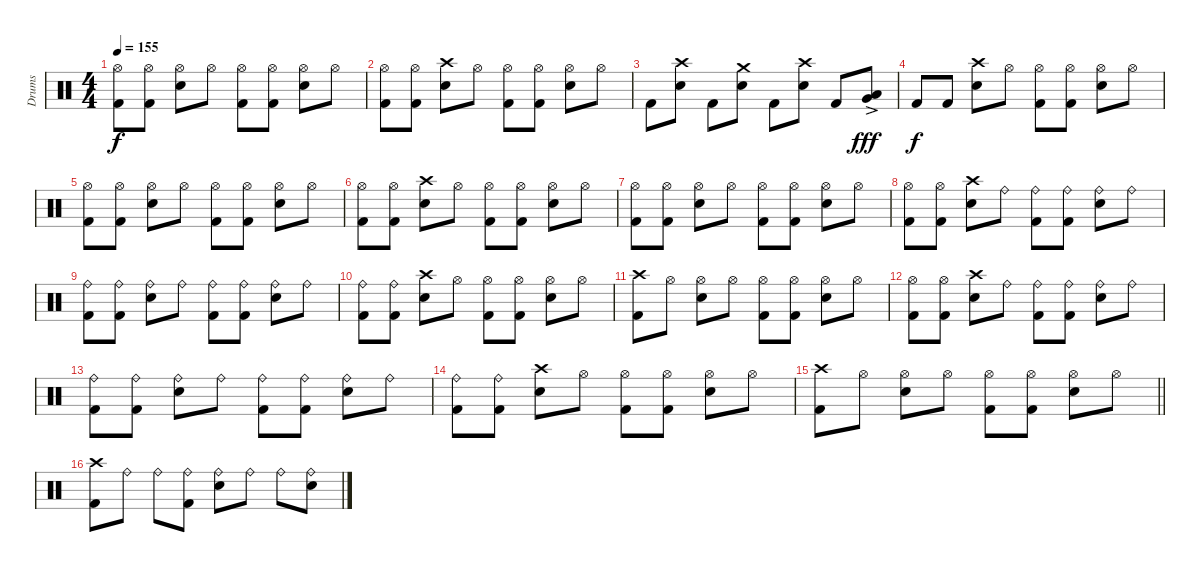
\track ("Drums" "Drums") {instrument percussion}
\staff {score}
\articulation defaults
\ts (4 4)
\tempo 155
\clef neutral
\ks c
("Hi-Hat (open)" "Kick (hit) 2").8{dy f} ("Hi-Hat (open)" "Kick (hit) 2").8 ("Hi-Hat (open)" "Snare (hit) 2").8 "Hi-Hat (open)".8 ("Hi-Hat (open)" "Kick (hit) 2").8 ("Hi-Hat (open)" "Kick (hit) 2").8 ("Hi-Hat (open)" "Snare (hit) 2").8 "Hi-Hat (open)".8 |
("Hi-Hat (open)" "Kick (hit) 2").8 ("Hi-Hat (open)" "Kick (hit) 2").8 ("Crash high (hit)" "Snare (hit) 2").8 "Hi-Hat (open)".8 ("Hi-Hat (open)" "Kick (hit) 2").8 ("Hi-Hat (open)" "Kick (hit) 2").8 ("Hi-Hat (open)" "Snare (hit) 2").8 "Hi-Hat (open)".8 |
"Kick (hit) 2".8 ("Crash high (hit)" "Snare (hit) 2").8 "Kick (hit) 2".8 ("Crash medium (hit)" "Snare (hit) 2").8 "Kick (hit) 2".8 ("Crash high (hit)" "Snare (hit) 2").8 "Kick (hit) 2".8 ("Low Tom (hit)"{ac} "Very Low Tom (hit)").8{dy fff} |
"Kick (hit) 2".8{dy f} "Kick (hit) 2".8 ("Crash high (hit)" "Snare (hit) 2").8 "Hi-Hat (open)".8 ("Hi-Hat (open)" "Kick (hit) 2").8 ("Hi-Hat (open)" "Kick (hit) 2").8 ("Hi-Hat (open)" "Snare (hit) 2").8 "Hi-Hat (open)".8 |
("Hi-Hat (open)" "Kick (hit) 2").8 ("Hi-Hat (open)" "Kick (hit) 2").8 ("Hi-Hat (open)" "Snare (hit) 2").8 "Hi-Hat (open)".8 ("Hi-Hat (open)" "Kick (hit) 2").8 ("Hi-Hat (open)" "Kick (hit) 2").8 ("Hi-Hat (open)" "Snare (hit) 2").8 "Hi-Hat (open)".8 |
("Hi-Hat (open)" "Kick (hit) 2").8 ("Hi-Hat (open)" "Kick (hit) 2").8 ("Crash high (hit)" "Snare (hit) 2").8 "Hi-Hat (open)".8 ("Hi-Hat (open)" "Kick (hit) 2").8 ("Hi-Hat (open)" "Kick (hit) 2").8 ("Hi-Hat (open)" "Snare (hit) 2").8 "Hi-Hat (open)".8 |
("Hi-Hat (open)" "Kick (hit) 2").8 ("Hi-Hat (open)" "Kick (hit) 2").8 ("Hi-Hat (open)" "Snare (hit) 2").8 "Hi-Hat (open)".8 ("Hi-Hat (open)" "Kick (hit) 2").8 ("Hi-Hat (open)" "Kick (hit) 2").8 ("Hi-Hat (open)" "Snare (hit) 2").8 "Hi-Hat (open)".8 |
("Hi-Hat (open)" "Kick (hit) 2").8 ("Hi-Hat (open)" "Kick (hit) 2").8 ("Crash high (hit)" "Snare (hit) 2").8 "Ride (bell)".8 ("Ride (bell)" "Kick (hit) 2").8 ("Ride (bell)" "Kick (hit) 2").8 ("Ride (bell)" "Snare (hit) 2").8 "Ride (bell)".8 |
("Ride (bell)" "Kick (hit) 2").8 ("Ride (bell)" "Kick (hit) 2").8 ("Ride (bell)" "Snare (hit) 2").8 "Ride (bell)".8 ("Ride (bell)" "Kick (hit) 2").8 ("Ride (bell)" "Kick (hit) 2").8 ("Ride (bell)" "Snare (hit) 2").8 "Ride (bell)".8 |
("Ride (bell)" "Kick (hit) 2").8 ("Ride (bell)" "Kick (hit) 2").8 ("Crash high (hit)" "Snare (hit) 2").8 "Hi-Hat (open)".8 ("Hi-Hat (open)" "Kick (hit) 2").8 ("Hi-Hat (open)" "Kick (hit) 2").8 ("Hi-Hat (open)" "Snare (hit) 2").8 "Hi-Hat (open)".8 |
("Crash high (hit)" "Kick (hit) 2").8 "Hi-Hat (open)".8 ("Hi-Hat (open)" "Snare (hit) 2").8 "Hi-Hat (open)".8 ("Hi-Hat (open)" "Kick (hit) 2").8 ("Hi-Hat (open)" "Kick (hit) 2").8 ("Hi-Hat (open)" "Snare (hit) 2").8 "Hi-Hat (open)".8 |
("Hi-Hat (open)" "Kick (hit) 2").8 ("Hi-Hat (open)" "Kick (hit) 2").8 ("Crash high (hit)" "Snare (hit) 2").8 "Ride (bell)".8 ("Ride (bell)" "Kick (hit) 2").8 ("Ride (bell)" "Kick (hit) 2").8 ("Ride (bell)" "Snare (hit) 2").8 "Ride (bell)".8 |
("Ride (bell)" "Kick (hit) 2").8 ("Ride (bell)" "Kick (hit) 2").8 ("Ride (bell)" "Snare (hit) 2").8 "Ride (bell)".8 ("Ride (bell)" "Kick (hit) 2").8 ("Ride (bell)" "Kick (hit) 2").8 ("Ride (bell)" "Snare (hit) 2").8 "Ride (bell)".8 |
("Ride (bell)" "Kick (hit) 2").8 ("Ride (bell)" "Kick (hit) 2").8 ("Crash high (hit)" "Snare (hit) 2").8 "Hi-Hat (open)".8 ("Hi-Hat (open)" "Kick (hit) 2").8 ("Hi-Hat (open)" "Kick (hit) 2").8 ("Hi-Hat (open)" "Snare (hit) 2").8 "Hi-Hat (open)".8 |
\barLineRight lightlight
("Crash high (hit)" "Kick (hit) 2").8 "Hi-Hat (open)".8 ("Hi-Hat (open)" "Snare (hit) 2").8 "Hi-Hat (open)".8 ("Hi-Hat (open)" "Kick (hit) 2").8 ("Hi-Hat (open)" "Kick (hit) 2").8 ("Hi-Hat (open)" "Snare (hit) 2").8 "Hi-Hat (open)".8 |
("Crash high (hit)" "Kick (hit) 2").8 "Ride (bell)".8 "Ride (bell)".8 ("Ride (bell)" "Kick (hit) 2").8 ("Ride (bell)" "Snare (hit) 2").8 "Ride (bell)".8 "Ride (bell)".8 ("Ride (bell)" "Snare (hit) 2").8
